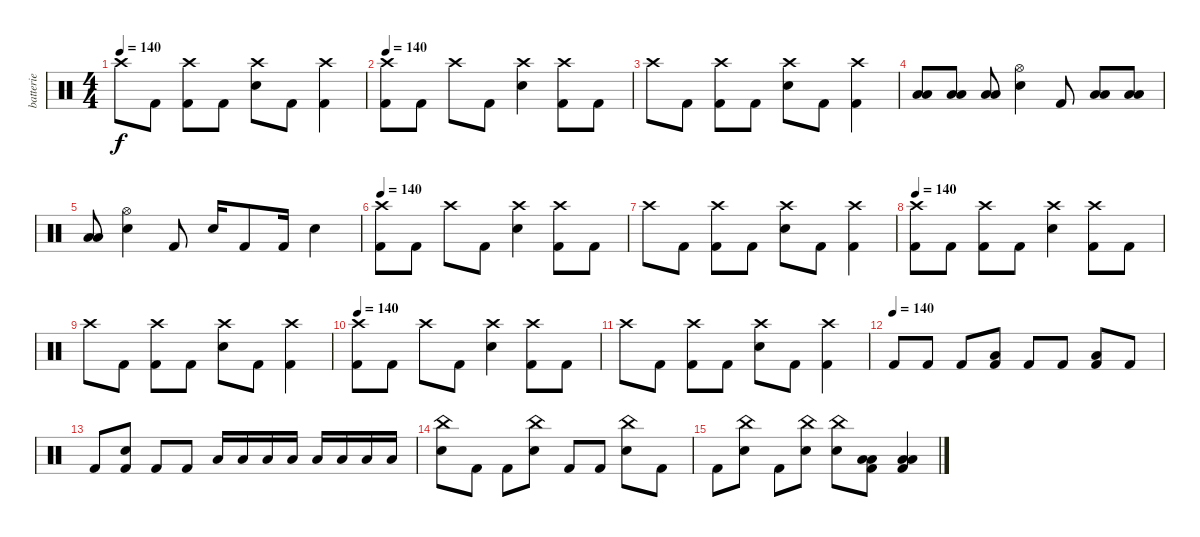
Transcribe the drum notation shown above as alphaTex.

\track ("batterie" "batterie") {instrument percussion}
\staff {score}
\articulation defaults
\ts (4 4)
\tempo 140
\clef neutral
\ks c "Crash high (hit)".8{dy f} "Kick (hit) 2".8
("Crash high (hit)" "Kick (hit) 2").8 "Kick (hit) 2".8 ("Crash high (hit)" "Electric Snare (hit)").8 "Kick (hit) 2".8 ("Crash high (hit)" "Kick (hit) 2").4 |
\tempo 140
("Crash high (hit)" "Kick (hit) 2").8 "Kick (hit) 2".8 "Crash high (hit)".8 "Kick (hit) 2".8 ("Crash high (hit)" "Electric Snare (hit)").4 ("Crash high (hit)" "Kick (hit) 2").8 "Kick (hit) 2".8 |
"Crash high (hit)".8 "Kick (hit) 2".8 ("Crash high (hit)" "Kick (hit) 2").8 "Kick (hit) 2".8 ("Crash high (hit)" "Electric Snare (hit)").8 "Kick (hit) 2".8 ("Crash high (hit)" "Kick (hit) 2").4 |
("Low Tom (hit)" "Low Floor Tom (hit)").8 ("Low Tom (hit)" "Low Floor Tom (hit)").8 ("Low Tom (hit)" "Low Floor Tom (hit)").8 ("Hi-Hat (open)" "Electric Snare (hit)").4 "Kick (hit) 2".8 ("Low Tom (hit)" "Low Floor Tom (hit)").8 ("Low Tom (hit)" "Low Floor Tom (hit)").8 |
("Low Tom (hit)" "Low Floor Tom (hit)").8 ("Hi-Hat (open)" "Electric Snare (hit)").4 "Kick (hit) 2".8 "Electric Snare (hit)".16 "Kick (hit) 2".8 "Kick (hit) 2".16 "Electric Snare (hit)".4 |
\tempo 140
("Crash high (hit)" "Kick (hit) 2").8 "Kick (hit) 2".8 "Crash high (hit)".8 "Kick (hit) 2".8 ("Crash high (hit)" "Electric Snare (hit)").4 ("Crash high (hit)" "Kick (hit) 2").8 "Kick (hit) 2".8 |
"Crash high (hit)".8 "Kick (hit) 2".8 ("Crash high (hit)" "Kick (hit) 2").8 "Kick (hit) 2".8 ("Crash high (hit)" "Electric Snare (hit)").8 "Kick (hit) 2".8 ("Crash high (hit)" "Kick (hit) 2").4 |
\tempo 140
("Crash high (hit)" "Kick (hit) 2").8 "Kick (hit) 2".8 ("Crash high (hit)" "Kick (hit) 2").8 "Kick (hit) 2".8 ("Crash high (hit)" "Electric Snare (hit)").4 ("Crash high (hit)" "Kick (hit) 2").8 "Kick (hit) 2".8 |
"Crash high (hit)".8 "Kick (hit) 2".8 ("Crash high (hit)" "Kick (hit) 2").8 "Kick (hit) 2".8 ("Crash high (hit)" "Electric Snare (hit)").8 "Kick (hit) 2".8 ("Crash high (hit)" "Kick (hit) 2").4 |
\tempo 140
("Crash high (hit)" "Kick (hit) 2").8 "Kick (hit) 2".8 "Crash high (hit)".8 "Kick (hit) 2".8 ("Crash high (hit)" "Electric Snare (hit)").4 ("Crash high (hit)" "Kick (hit) 2").8 "Kick (hit) 2".8 |
"Crash high (hit)".8 "Kick (hit) 2".8 ("Crash high (hit)" "Kick (hit) 2").8 "Kick (hit) 2".8 ("Crash high (hit)" "Electric Snare (hit)").8 "Kick (hit) 2".8 ("Crash high (hit)" "Kick (hit) 2").4 |
\tempo (140)
"Kick (hit) 2".8 "Kick (hit) 2".8 "Kick (hit) 2".8 ("Low Tom (hit)" "Kick (hit) 2").8 "Kick (hit) 2".8 "Kick (hit) 2".8 ("Low Floor Tom (hit)" "Kick (hit) 2").8 "Kick (hit) 2".8 |
"Kick (hit) 2".8 ("Electric Snare (hit)" "Kick (hit) 2").8 "Kick (hit) 2".8 "Kick (hit) 2".8 "Low Tom (hit)".16 "Low Tom (hit)".16 "Low Tom (hit)".16 "Low Tom (hit)".16 "Low Floor Tom (hit)".16 "Low Floor Tom (hit)".16 "Low Floor Tom (hit)".16 "Low Floor Tom (hit)".16 |
("China (hit)" "Electric Snare (hit)").8 "Kick (hit) 2".8 "Kick (hit) 2".8 ("China (hit)" "Electric Snare (hit)").8 "Kick (hit) 2".8 "Kick (hit) 2".8 ("China (hit)" "Electric Snare (hit)").8 "Kick (hit) 2".8 |
"Kick (hit) 2".8 ("China (hit)" "Electric Snare (hit)").8 "Kick (hit) 2".8 ("China (hit)" "Electric Snare (hit)").8 ("China (hit)" "Electric Snare (hit)").8 ("Low Floor Tom (hit)" "Low Tom (hit)" "Kick (hit) 2").8 ("Low Floor Tom (hit)" "Low Tom (hit)" "Kick (hit) 2").4
